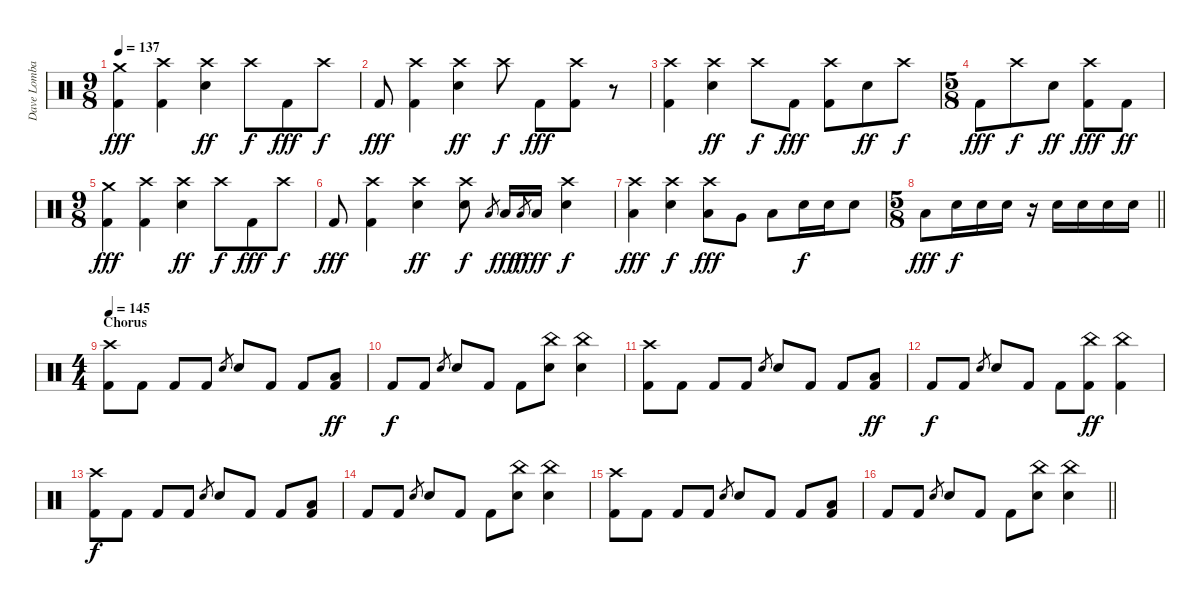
\track ("Dave Lombardo" "Dave Lomba") {instrument percussion}
\staff {score}
\articulation defaults
\ts (9 8)
\tempo 137
\clef neutral
\ks c
("Crash medium (hit)" "Kick (hit) 2").4{dy fff} ("Crash high (hit)" "Kick (hit) 2").4 ("Crash high (hit)" "Snare (hit) 2").4{dy ff} "Crash high (hit)".8{dy f} "Kick (hit) 2".8{dy fff} "Crash high (hit)".8{dy f} |
"Kick (hit) 2".8{dy fff} ("Crash high (hit)" "Kick (hit) 2").4 ("Crash high (hit)" "Snare (hit) 2").4{dy ff} "Crash high (hit)".8{dy f} "Kick (hit) 2".8{dy fff} ("Crash high (hit)" "Kick (hit) 2").8 r.8 |
("Crash high (hit)" "Kick (hit) 2").4 ("Crash high (hit)" "Snare (hit) 2").4{dy ff} "Crash high (hit)".8{dy f} "Kick (hit) 2".8{dy fff} ("Crash high (hit)" "Kick (hit) 2").8 "Snare (hit) 2".8{dy ff} "Crash high (hit)".8{dy f} |
\ts (5 8)
"Kick (hit) 2".8{dy fff} "Crash high (hit)".8{dy f} "Snare (hit) 2".8{dy ff} ("Crash high (hit)" "Kick (hit) 2").8{dy fff} "Kick (hit) 2".8{dy ff} |
\ts (9 8)
("Crash medium (hit)" "Kick (hit) 2").4{dy fff} ("Crash high (hit)" "Kick (hit) 2").4 ("Crash high (hit)" "Snare (hit) 2").4{dy ff} "Crash high (hit)".8{dy f} "Kick (hit) 2".8{dy fff} "Crash high (hit)".8{dy f} |
"Kick (hit) 2".8{dy fff} ("Crash high (hit)" "Kick (hit) 2").4 ("Crash high (hit)" "Snare (hit) 2").4{dy ff} ("Crash high (hit)" "Snare (hit) 2").8{dy f} "Low Floor Tom (hit)".8{gr} "Low Floor Tom (hit)".16{dy fff} "Low Floor Tom (hit)".8{gr dy f} "Low Floor Tom (hit)".16{dy fff} ("Crash high (hit)" "Snare (hit) 2").4{dy f} |
("Crash high (hit)" "Low Floor Tom (hit)").4{dy fff} ("Crash high (hit)" "Snare (hit) 2").4{dy f} ("Crash high (hit)" "Low Floor Tom (hit)").8{dy fff} "Very Low Tom (hit)".8 "Low Floor Tom (hit)".8 "Snare (hit) 2".16{dy f} "Snare (hit) 2".16 "Snare (hit) 2".8 |
\ts (5 8)
\barLineRight lightlight "Low Floor Tom (hit)".8{dy fff} "Snare (hit) 2".16{dy f} "Snare (hit) 2".16 "Snare (hit) 2".16
r.16 "Snare (hit) 2".16 "Snare (hit) 2".16 "Snare (hit) 2".16 "Snare (hit) 2".16 |
\ts (4 4)
\section ("" "Chorus")
\tempo 145
("Crash high (hit)" "Kick (hit) 2").8 "Kick (hit) 2".8 "Kick (hit) 2".8 "Kick (hit) 2".8 "Snare (hit) 2".8{gr} "Snare (hit) 2".8 "Kick (hit) 2".8 "Kick (hit) 2".8 ("Low Floor Tom (hit)" "Kick (hit) 2").8{dy ff} |
"Kick (hit) 2".8{dy f} "Kick (hit) 2".8 "Snare (hit) 2".8{gr} "Snare (hit) 2".8 "Kick (hit) 2".8 "Kick (hit) 2".8 ("China (hit)" "Snare (hit) 2").8 ("China (hit)" "Snare (hit) 2").4 |
("Crash high (hit)" "Kick (hit) 2").8 "Kick (hit) 2".8 "Kick (hit) 2".8 "Kick (hit) 2".8 "Snare (hit) 2".8{gr} "Snare (hit) 2".8 "Kick (hit) 2".8 "Kick (hit) 2".8 ("Low Floor Tom (hit)" "Kick (hit) 2").8{dy ff} |
"Kick (hit) 2".8{dy f} "Kick (hit) 2".8 "Snare (hit) 2".8{gr} "Snare (hit) 2".8 "Kick (hit) 2".8 "Kick (hit) 2".8 ("China (hit)" "Kick (hit) 2").8{dy ff} ("China (hit)" "Kick (hit) 2").4 |
("Crash high (hit)" "Kick (hit) 2").8{dy f} "Kick (hit) 2".8 "Kick (hit) 2".8 "Kick (hit) 2".8 "Snare (hit) 2".8{gr} "Snare (hit) 2".8 "Kick (hit) 2".8 "Kick (hit) 2".8 ("Low Floor Tom (hit)" "Kick (hit) 2").8 |
"Kick (hit) 2".8 "Kick (hit) 2".8 "Snare (hit) 2".8{gr} "Snare (hit) 2".8 "Kick (hit) 2".8 "Kick (hit) 2".8 ("China (hit)" "Snare (hit) 2").8 ("China (hit)" "Snare (hit) 2").4 |
("Crash high (hit)" "Kick (hit) 2").8 "Kick (hit) 2".8 "Kick (hit) 2".8 "Kick (hit) 2".8 "Snare (hit) 2".8{gr} "Snare (hit) 2".8 "Kick (hit) 2".8 "Kick (hit) 2".8 ("Low Floor Tom (hit)" "Kick (hit) 2").8 |
\barLineRight lightlight "Kick (hit) 2".8 "Kick (hit) 2".8 "Snare (hit) 2".8{gr} "Snare (hit) 2".8 "Kick (hit) 2".8 "Kick (hit) 2".8
("China (hit)" "Snare (hit) 2").8 ("China (hit)" "Snare (hit) 2").4
